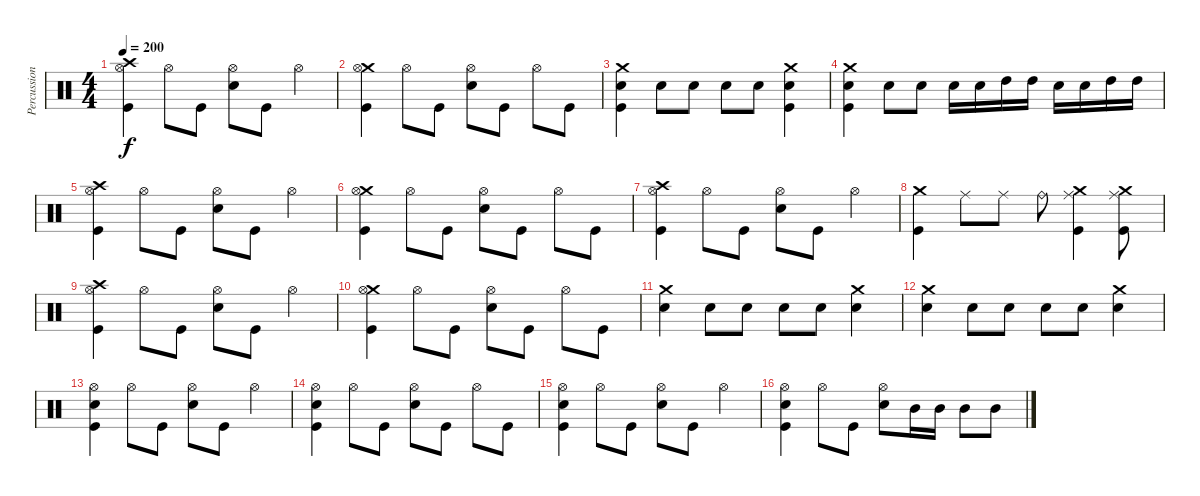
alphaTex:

\track ("Percussion" "Percussion") {instrument percussion}
\staff {score}
\articulation defaults
\ts (4 4)
\tempo 200
\clef neutral
\ks c
("Crash high (hit)" "Hi-Hat (open)" "Kick (hit)").4{dy f} "Hi-Hat (open)".8 "Kick (hit)".8 ("Snare (hit) 2" "Hi-Hat (open)").8 "Kick (hit)".8 "Hi-Hat (open)".4 |
("Crash medium (hit)" "Hi-Hat (open)" "Kick (hit)").4 "Hi-Hat (open)".8 "Kick (hit)".8 ("Snare (hit) 2" "Hi-Hat (open)").8 "Kick (hit)".8 "Hi-Hat (open)".8 "Kick (hit)".8 |
("Crash medium (hit)" "Snare (hit) 2" "Kick (hit)").4 "Snare (hit) 2".8 "Snare (hit) 2".8 "Snare (hit) 2".8 "Snare (hit) 2".8 ("Crash medium (hit)" "Snare (hit) 2" "Kick (hit)").4 |
("Crash medium (hit)" "Snare (hit) 2" "Kick (hit)").4 "Snare (hit) 2".8 "Snare (hit) 2".8 "Snare (hit) 2".16 "Snare (hit) 2".16 "High Tom (hit)".16 "High Tom (hit)".16 "Snare (hit) 2".16 "Snare (hit) 2".16 "High Tom (hit)".16 "High Tom (hit)".16 |
("Crash high (hit)" "Hi-Hat (open)" "Kick (hit)").4 "Hi-Hat (open)".8 "Kick (hit)".8 ("Snare (hit) 2" "Hi-Hat (open)").8 "Kick (hit)".8 "Hi-Hat (open)".4 |
("Crash medium (hit)" "Hi-Hat (open)" "Kick (hit)").4 "Hi-Hat (open)".8 "Kick (hit)".8 ("Snare (hit) 2" "Hi-Hat (open)").8 "Kick (hit)".8 "Hi-Hat (open)".8 "Kick (hit)".8 |
("Crash high (hit)" "Hi-Hat (open)" "Kick (hit)").4 "Hi-Hat (open)".8 "Kick (hit)".8 ("Snare (hit) 2" "Hi-Hat (open)").8 "Kick (hit)".8 "Hi-Hat (open)".4 |
("Crash medium (hit)" "Kick (hit)").4 "Ride (middle)".8 "Ride (middle)".8 "Ride (bell)".8 ("Crash medium (hit)" "Ride (middle)" "Kick (hit)").4 ("Crash medium (hit)" "Ride (middle)" "Kick (hit)").8 |
("Crash high (hit)" "Hi-Hat (open)" "Kick (hit)").4 "Hi-Hat (open)".8 "Kick (hit)".8 ("Snare (hit) 2" "Hi-Hat (open)").8 "Kick (hit)".8 "Hi-Hat (open)".4 |
("Crash medium (hit)" "Hi-Hat (open)" "Kick (hit)").4 "Hi-Hat (open)".8 "Kick (hit)".8 ("Snare (hit) 2" "Hi-Hat (open)").8 "Kick (hit)".8 "Hi-Hat (open)".8 "Kick (hit)".8 |
("Crash medium (hit)" "Snare (hit) 2").4 "Snare (hit) 2".8 "Snare (hit) 2".8 "Snare (hit) 2".8 "Snare (hit) 2".8 ("Crash medium (hit)" "Snare (hit) 2").4 |
("Crash medium (hit)" "Snare (hit) 2").4 "Snare (hit) 2".8 "Snare (hit) 2".8 "Snare (hit) 2".8 "Snare (hit) 2".8 ("Crash medium (hit)" "Snare (hit) 2").4 |
("Snare (hit) 2" "Hi-Hat (open)" "Kick (hit)").4 "Hi-Hat (open)".8 "Kick (hit)".8 ("Snare (hit) 2" "Hi-Hat (open)").8 "Kick (hit)".8 "Hi-Hat (open)".4 |
("Snare (hit) 2" "Hi-Hat (open)" "Kick (hit)").4 "Hi-Hat (open)".8 "Kick (hit)".8 ("Snare (hit) 2" "Hi-Hat (open)").8 "Kick (hit)".8 "Hi-Hat (open)".8 "Kick (hit)".8 |
("Snare (hit) 2" "Hi-Hat (open)" "Kick (hit)").4 "Hi-Hat (open)".8 "Kick (hit)".8 ("Snare (hit) 2" "Hi-Hat (open)").8 "Kick (hit)".8 "Hi-Hat (open)".4 |
("Snare (hit) 2" "Hi-Hat (open)" "Kick (hit)").4 "Hi-Hat (open)".8 "Kick (hit)".8 ("Snare (hit) 2" "Hi-Hat (open)").8 "Mid Tom (hit)".16 "Mid Tom (hit)".16 "Mid Tom (hit)".8 "Mid Tom (hit)".8
